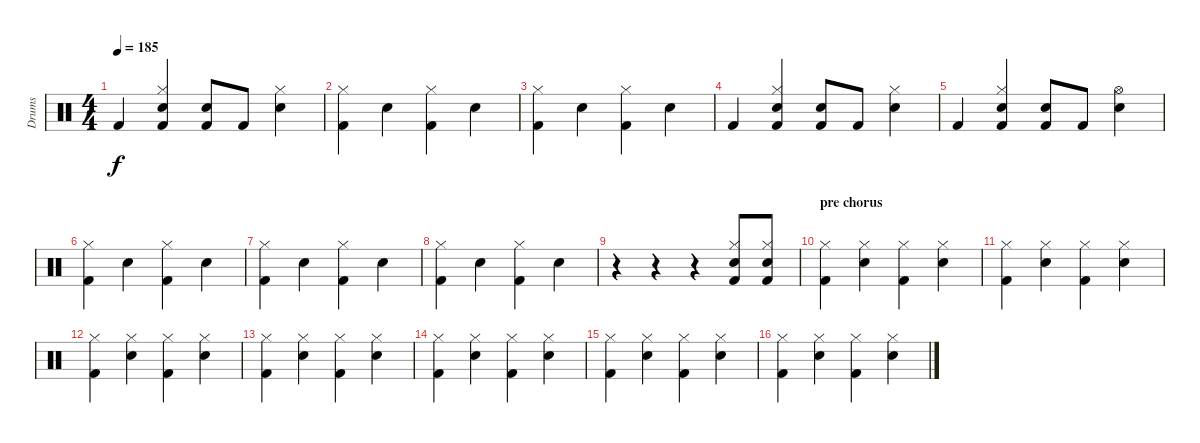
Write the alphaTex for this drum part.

\track ("Drums" "Drums") {instrument percussion}
\staff {score}
\articulation defaults
\ts (4 4)
\tempo 185
\clef neutral
\ks c "Kick (hit) 2".4{dy f}
("Hi-Hat (closed)" "Snare (hit) 2" "Kick (hit) 2").4 ("Snare (hit) 2" "Kick (hit) 2").8 "Kick (hit) 2".8 ("Hi-Hat (closed)" "Snare (hit) 2").4 |
("Hi-Hat (closed)" "Kick (hit) 2").4 "Snare (hit) 2".4 ("Hi-Hat (closed)" "Kick (hit) 2").4 "Snare (hit) 2".4 |
("Hi-Hat (closed)" "Kick (hit) 2").4 "Snare (hit) 2".4 ("Hi-Hat (closed)" "Kick (hit) 2").4 "Snare (hit) 2".4 |
"Kick (hit) 2".4 ("Hi-Hat (closed)" "Snare (hit) 2" "Kick (hit) 2").4 ("Snare (hit) 2" "Kick (hit) 2").8 "Kick (hit) 2".8 ("Hi-Hat (closed)" "Snare (hit) 2").4 |
"Kick (hit) 2".4 ("Hi-Hat (closed)" "Snare (hit) 2" "Kick (hit) 2").4 ("Snare (hit) 2" "Kick (hit) 2").8 "Kick (hit) 2".8 ("Hi-Hat (open)" "Snare (hit) 2").4 |
("Hi-Hat (closed)" "Kick (hit) 2").4 "Snare (hit) 2".4 ("Hi-Hat (closed)" "Kick (hit) 2").4 "Snare (hit) 2".4 |
("Hi-Hat (closed)" "Kick (hit) 2").4 "Snare (hit) 2".4 ("Hi-Hat (closed)" "Kick (hit) 2").4 "Snare (hit) 2".4 |
("Hi-Hat (closed)" "Kick (hit) 2").4 "Snare (hit) 2".4 ("Hi-Hat (closed)" "Kick (hit) 2").4 "Snare (hit) 2".4 |
r.4 r.4 r.4 ("Hi-Hat (closed)" "Snare (hit) 2" "Kick (hit) 2").8 ("Hi-Hat (closed)" "Snare (hit) 2" "Kick (hit) 2").8 |
\section ("" "pre chorus")
("Hi-Hat (closed)" "Kick (hit) 2").4 ("Hi-Hat (closed)" "Snare (hit) 2").4 ("Hi-Hat (closed)" "Kick (hit) 2").4 ("Hi-Hat (closed)" "Snare (hit) 2").4 |
("Hi-Hat (closed)" "Kick (hit) 2").4 ("Hi-Hat (closed)" "Snare (hit) 2").4 ("Hi-Hat (closed)" "Kick (hit) 2").4 ("Hi-Hat (closed)" "Snare (hit) 2").4 |
("Hi-Hat (closed)" "Kick (hit) 2").4 ("Hi-Hat (closed)" "Snare (hit) 2").4 ("Hi-Hat (closed)" "Kick (hit) 2").4 ("Hi-Hat (closed)" "Snare (hit) 2").4 |
("Hi-Hat (closed)" "Kick (hit) 2").4 ("Hi-Hat (closed)" "Snare (hit) 2").4 ("Hi-Hat (closed)" "Kick (hit) 2").4 ("Hi-Hat (closed)" "Snare (hit) 2").4 |
("Hi-Hat (closed)" "Kick (hit) 2").4 ("Hi-Hat (closed)" "Snare (hit) 2").4 ("Hi-Hat (closed)" "Kick (hit) 2").4 ("Hi-Hat (closed)" "Snare (hit) 2").4 |
("Hi-Hat (closed)" "Kick (hit) 2").4 ("Hi-Hat (closed)" "Snare (hit) 2").4 ("Hi-Hat (closed)" "Kick (hit) 2").4 ("Hi-Hat (closed)" "Snare (hit) 2").4 |
("Hi-Hat (closed)" "Kick (hit) 2").4 ("Hi-Hat (closed)" "Snare (hit) 2").4 ("Hi-Hat (closed)" "Kick (hit) 2").4 ("Hi-Hat (closed)" "Snare (hit) 2").4
